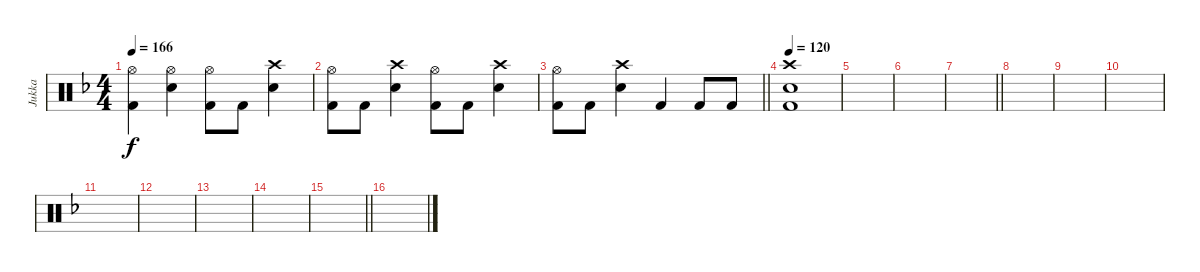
\track ("Jukka" "Jukka") {instrument percussion}
\staff {score}
\articulation defaults
\ts (4 4)
\tempo 166
\clef neutral
\ks f
("Hi-Hat (open)" "Kick (hit) 2").4{dy f} ("Hi-Hat (open)" "Electric Snare (hit)").4 ("Hi-Hat (open)" "Kick (hit) 2").8 "Kick (hit) 2".8 ("Crash high (hit)" "Electric Snare (hit)").4 |
("Hi-Hat (open)" "Kick (hit) 2").8 "Kick (hit) 2".8 ("Crash high (hit)" "Electric Snare (hit)").4 ("Hi-Hat (open)" "Kick (hit) 2").8 "Kick (hit) 2".8 ("Crash high (hit)" "Electric Snare (hit)").4 |
\barLineRight lightlight
("Hi-Hat (open)" "Kick (hit) 2").8 "Kick (hit) 2".8 ("Crash high (hit)" "Electric Snare (hit)").4 "Kick (hit) 2".4 "Kick (hit) 2".8 "Kick (hit) 2".8 |
\section ("" "")
\tempo 120
("Crash high (hit)" "Kick (hit) 2" "Electric Snare (hit)").1 |
|
|
\barLineRight lightlight
|
\section ("" "")
|
|
|
|
|
|
|
\barLineRight lightlight
|
\section ("" "")
